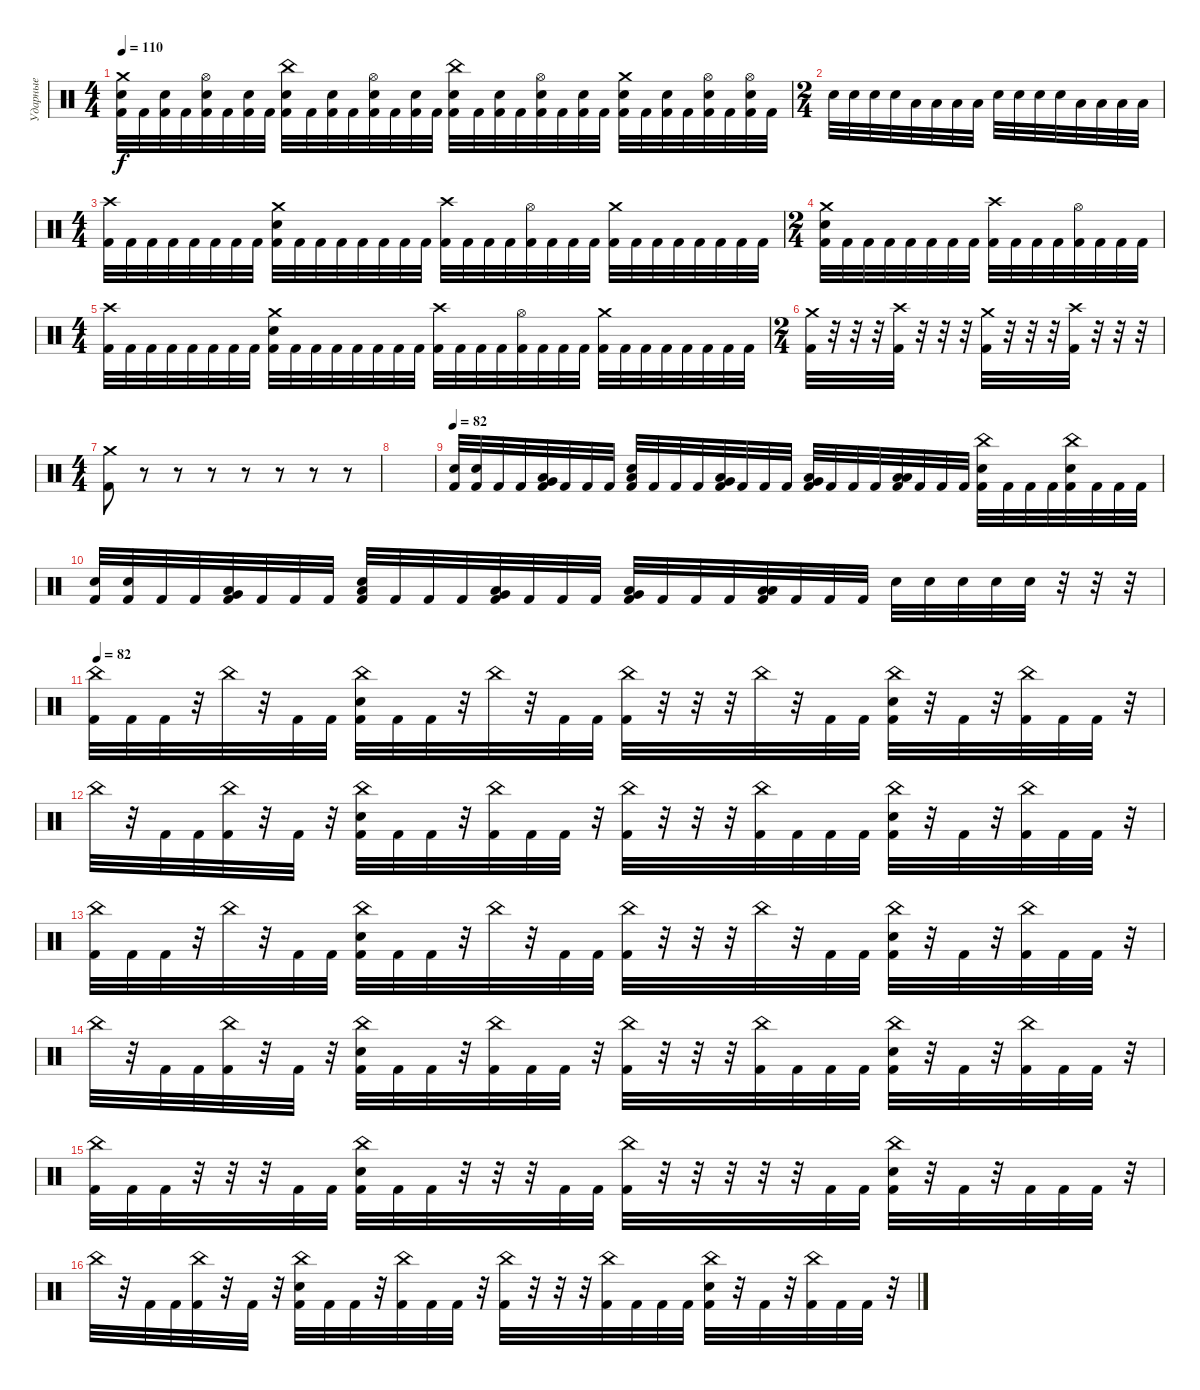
\track ("Ударные" "Ударные") {instrument percussion}
\staff {score}
\articulation defaults
\ts (4 4)
\tempo 110
\clef neutral
\ks c
("Crash medium (hit)" "Electric Snare (hit)" "Kick (hit) 2").32{dy f} "Kick (hit) 2".32 ("Electric Snare (hit)" "Kick (hit) 2").32 "Kick (hit) 2".32 ("Hi-Hat (open)" "Electric Snare (hit)" "Kick (hit) 2").32 "Kick (hit) 2".32 ("Electric Snare (hit)" "Kick (hit) 2").32 "Kick (hit) 2".32 ("China (hit)" "Electric Snare (hit)" "Kick (hit) 2").32 "Kick (hit) 2".32 ("Electric Snare (hit)" "Kick (hit) 2").32 "Kick (hit) 2".32 ("Hi-Hat (open)" "Electric Snare (hit)" "Kick (hit) 2").32 "Kick (hit) 2".32 ("Electric Snare (hit)" "Kick (hit) 2").32 "Kick (hit) 2".32 ("China (hit)" "Electric Snare (hit)" "Kick (hit) 2").32 "Kick (hit) 2".32 ("Electric Snare (hit)" "Kick (hit) 2").32 "Kick (hit) 2".32 ("Hi-Hat (open)" "Electric Snare (hit)" "Kick (hit) 2").32 "Kick (hit) 2".32 ("Electric Snare (hit)" "Kick (hit) 2").32 "Kick (hit) 2".32 ("Crash medium (hit)" "Electric Snare (hit)" "Kick (hit) 2").32 "Kick (hit) 2".32 ("Electric Snare (hit)" "Kick (hit) 2").32 "Kick (hit) 2".32 ("Hi-Hat (open)" "Electric Snare (hit)" "Kick (hit) 2").32 "Kick (hit) 2".32 ("Hi-Hat (open)" "Electric Snare (hit)" "Kick (hit) 2").32 "Kick (hit) 2".32 |
\ts (2 4)
"Electric Snare (hit)".32 "Electric Snare (hit)".32 "Electric Snare (hit)".32 "Electric Snare (hit)".32 "Low Tom (hit)".32 "Low Tom (hit)".32 "Low Tom (hit)".32 "Low Tom (hit)".32 "Electric Snare (hit)".32 "Electric Snare (hit)".32 "Electric Snare (hit)".32 "Electric Snare (hit)".32 "Low Tom (hit)".32 "Low Tom (hit)".32 "Low Tom (hit)".32 "Low Tom (hit)".32 |
\ts (4 4)
("Crash high (hit)" "Kick (hit) 2").32 "Kick (hit) 2".32 "Kick (hit) 2".32 "Kick (hit) 2".32 "Kick (hit) 2".32 "Kick (hit) 2".32 "Kick (hit) 2".32 "Kick (hit) 2".32 ("Crash medium (hit)" "Electric Snare (hit)" "Kick (hit) 2").32 "Kick (hit) 2".32 "Kick (hit) 2".32 "Kick (hit) 2".32 "Kick (hit) 2".32 "Kick (hit) 2".32 "Kick (hit) 2".32 "Kick (hit) 2".32 ("Crash high (hit)" "Kick (hit) 2").32 "Kick (hit) 2".32 "Kick (hit) 2".32 "Kick (hit) 2".32 ("Hi-Hat (open)" "Kick (hit) 2").32 "Kick (hit) 2".32 "Kick (hit) 2".32 "Kick (hit) 2".32 ("Crash medium (hit)" "Kick (hit) 2").32 "Kick (hit) 2".32 "Kick (hit) 2".32 "Kick (hit) 2".32 "Kick (hit) 2".32 "Kick (hit) 2".32 "Kick (hit) 2".32 "Kick (hit) 2".32 |
\ts (2 4)
("Crash medium (hit)" "Electric Snare (hit)" "Kick (hit) 2").32 "Kick (hit) 2".32 "Kick (hit) 2".32 "Kick (hit) 2".32 "Kick (hit) 2".32 "Kick (hit) 2".32 "Kick (hit) 2".32 "Kick (hit) 2".32 ("Crash high (hit)" "Kick (hit) 2").32 "Kick (hit) 2".32 "Kick (hit) 2".32 "Kick (hit) 2".32 ("Hi-Hat (open)" "Kick (hit) 2").32 "Kick (hit) 2".32 "Kick (hit) 2".32 "Kick (hit) 2".32 |
\ts (4 4)
("Crash high (hit)" "Kick (hit) 2").32 "Kick (hit) 2".32 "Kick (hit) 2".32 "Kick (hit) 2".32 "Kick (hit) 2".32 "Kick (hit) 2".32 "Kick (hit) 2".32 "Kick (hit) 2".32 ("Crash medium (hit)" "Electric Snare (hit)" "Kick (hit) 2").32 "Kick (hit) 2".32 "Kick (hit) 2".32 "Kick (hit) 2".32 "Kick (hit) 2".32 "Kick (hit) 2".32 "Kick (hit) 2".32 "Kick (hit) 2".32 ("Crash high (hit)" "Kick (hit) 2").32 "Kick (hit) 2".32 "Kick (hit) 2".32 "Kick (hit) 2".32 ("Hi-Hat (open)" "Kick (hit) 2").32 "Kick (hit) 2".32 "Kick (hit) 2".32 "Kick (hit) 2".32 ("Crash medium (hit)" "Kick (hit) 2").32 "Kick (hit) 2".32 "Kick (hit) 2".32 "Kick (hit) 2".32 "Kick (hit) 2".32 "Kick (hit) 2".32 "Kick (hit) 2".32 "Kick (hit) 2".32 |
\ts (2 4)
("Crash medium (hit)" "Kick (hit) 2").32 r.32 r.32 r.32 ("Crash high (hit)" "Kick (hit) 2").32 r.32 r.32 r.32 ("Crash medium (hit)" "Kick (hit) 2").32 r.32 r.32 r.32 ("Crash high (hit)" "Kick (hit) 2").32 r.32 r.32 r.32 |
\ts (4 4)
("Crash medium (hit)" "Kick (hit) 2").8 r.8 r.8 r.8 r.8 r.8 r.8 r.8 |
|
\tempo 82
("Electric Snare (hit)" "Kick (hit) 2").32 ("Electric Snare (hit)" "Kick (hit) 2").32 "Kick (hit) 2".32 "Kick (hit) 2".32 ("Low Tom (hit)" "Very Low Tom (hit)" "Kick (hit) 2").32 "Kick (hit) 2".32 "Kick (hit) 2".32 "Kick (hit) 2".32 ("Low Floor Tom (hit)" "Electric Snare (hit)" "Kick (hit) 2").32 "Kick (hit) 2".32 "Kick (hit) 2".32 "Kick (hit) 2".32 ("Very Low Tom (hit)" "Low Tom (hit)" "Kick (hit) 2").32 "Kick (hit) 2".32 "Kick (hit) 2".32 "Kick (hit) 2".32 ("Very Low Tom (hit)" "Low Floor Tom (hit)" "Kick (hit) 2").32 "Kick (hit) 2".32 "Kick (hit) 2".32 "Kick (hit) 2".32 ("Low Floor Tom (hit)" "Low Floor Tom (hit)" "Kick (hit) 2").32 "Kick (hit) 2".32 "Kick (hit) 2".32 "Kick (hit) 2".32 ("China (hit)" "Electric Snare (hit)" "Kick (hit) 2").32 "Kick (hit) 2".32 "Kick (hit) 2".32 "Kick (hit) 2".32 ("China (hit)" "Electric Snare (hit)" "Kick (hit) 2").32 "Kick (hit) 2".32 "Kick (hit) 2".32 "Kick (hit) 2".32 |
("Electric Snare (hit)" "Kick (hit) 2").32 ("Electric Snare (hit)" "Kick (hit) 2").32 "Kick (hit) 2".32 "Kick (hit) 2".32 ("Low Tom (hit)" "Very Low Tom (hit)" "Kick (hit) 2").32 "Kick (hit) 2".32 "Kick (hit) 2".32 "Kick (hit) 2".32 ("Low Floor Tom (hit)" "Electric Snare (hit)" "Kick (hit) 2").32 "Kick (hit) 2".32 "Kick (hit) 2".32 "Kick (hit) 2".32 ("Very Low Tom (hit)" "Low Tom (hit)" "Kick (hit) 2").32 "Kick (hit) 2".32 "Kick (hit) 2".32 "Kick (hit) 2".32 ("Very Low Tom (hit)" "Low Floor Tom (hit)" "Kick (hit) 2").32 "Kick (hit) 2".32 "Kick (hit) 2".32 "Kick (hit) 2".32 ("Low Floor Tom (hit)" "Low Floor Tom (hit)" "Kick (hit) 2").32 "Kick (hit) 2".32 "Kick (hit) 2".32 "Kick (hit) 2".32 "Electric Snare (hit)".32 "Electric Snare (hit)".32 "Electric Snare (hit)".32 "Electric Snare (hit)".32 "Electric Snare (hit)".32 r.32 r.32 r.32 |
\tempo 82
("China (hit)" "Kick (hit) 2").32 "Kick (hit) 2".32 "Kick (hit) 2".32 r.32 "China (hit)".32 r.32 "Kick (hit) 2".32 "Kick (hit) 2".32 ("China (hit)" "Electric Snare (hit)" "Kick (hit) 2").32 "Kick (hit) 2".32 "Kick (hit) 2".32 r.32 "China (hit)".32 r.32 "Kick (hit) 2".32 "Kick (hit) 2".32 ("China (hit)" "Kick (hit) 2").32 r.32 r.32 r.32 "China (hit)".32 r.32 "Kick (hit) 2".32 "Kick (hit) 2".32 ("China (hit)" "Electric Snare (hit)" "Kick (hit) 2").32 r.32 "Kick (hit) 2".32 r.32 ("China (hit)" "Kick (hit) 2").32 "Kick (hit) 2".32 "Kick (hit) 2".32 r.32 |
"China (hit)".32 r.32 "Kick (hit) 2".32 "Kick (hit) 2".32 ("China (hit)" "Kick (hit) 2").32 r.32 "Kick (hit) 2".32 r.32 ("China (hit)" "Electric Snare (hit)" "Kick (hit) 2").32 "Kick (hit) 2".32 "Kick (hit) 2".32 r.32 ("China (hit)" "Kick (hit) 2").32 "Kick (hit) 2".32 "Kick (hit) 2".32 r.32 ("China (hit)" "Kick (hit) 2").32 r.32 r.32 r.32 ("China (hit)" "Kick (hit) 2").32 "Kick (hit) 2".32 "Kick (hit) 2".32 "Kick (hit) 2".32 ("China (hit)" "Electric Snare (hit)" "Kick (hit) 2").32 r.32 "Kick (hit) 2".32 r.32 ("China (hit)" "Kick (hit) 2").32 "Kick (hit) 2".32 "Kick (hit) 2".32 r.32 |
("China (hit)" "Kick (hit) 2").32 "Kick (hit) 2".32 "Kick (hit) 2".32 r.32 "China (hit)".32 r.32 "Kick (hit) 2".32 "Kick (hit) 2".32 ("China (hit)" "Electric Snare (hit)" "Kick (hit) 2").32 "Kick (hit) 2".32 "Kick (hit) 2".32 r.32 "China (hit)".32 r.32 "Kick (hit) 2".32 "Kick (hit) 2".32 ("China (hit)" "Kick (hit) 2").32 r.32 r.32 r.32 "China (hit)".32 r.32 "Kick (hit) 2".32 "Kick (hit) 2".32 ("China (hit)" "Electric Snare (hit)" "Kick (hit) 2").32 r.32 "Kick (hit) 2".32 r.32 ("China (hit)" "Kick (hit) 2").32 "Kick (hit) 2".32 "Kick (hit) 2".32 r.32 |
"China (hit)".32 r.32 "Kick (hit) 2".32 "Kick (hit) 2".32 ("China (hit)" "Kick (hit) 2").32 r.32 "Kick (hit) 2".32 r.32 ("China (hit)" "Electric Snare (hit)" "Kick (hit) 2").32 "Kick (hit) 2".32 "Kick (hit) 2".32 r.32 ("China (hit)" "Kick (hit) 2").32 "Kick (hit) 2".32 "Kick (hit) 2".32 r.32 ("China (hit)" "Kick (hit) 2").32 r.32 r.32 r.32 ("China (hit)" "Kick (hit) 2").32 "Kick (hit) 2".32 "Kick (hit) 2".32 "Kick (hit) 2".32 ("China (hit)" "Electric Snare (hit)" "Kick (hit) 2").32 r.32 "Kick (hit) 2".32 r.32 ("China (hit)" "Kick (hit) 2").32 "Kick (hit) 2".32 "Kick (hit) 2".32 r.32 |
("China (hit)" "Kick (hit) 2").32 "Kick (hit) 2".32 "Kick (hit) 2".32 r.32 r.32 r.32 "Kick (hit) 2".32 "Kick (hit) 2".32 ("China (hit)" "Electric Snare (hit)" "Kick (hit) 2").32 "Kick (hit) 2".32 "Kick (hit) 2".32 r.32 r.32 r.32 "Kick (hit) 2".32 "Kick (hit) 2".32 ("China (hit)" "Kick (hit) 2").32 r.32 r.32 r.32 r.32 r.32 "Kick (hit) 2".32 "Kick (hit) 2".32 ("China (hit)" "Electric Snare (hit)" "Kick (hit) 2").32 r.32 "Kick (hit) 2".32 r.32 "Kick (hit) 2".32 "Kick (hit) 2".32 "Kick (hit) 2".32 r.32 |
"China (hit)".32 r.32 "Kick (hit) 2".32 "Kick (hit) 2".32 ("China (hit)" "Kick (hit) 2").32 r.32 "Kick (hit) 2".32 r.32 ("China (hit)" "Electric Snare (hit)" "Kick (hit) 2").32 "Kick (hit) 2".32 "Kick (hit) 2".32 r.32 ("China (hit)" "Kick (hit) 2").32 "Kick (hit) 2".32 "Kick (hit) 2".32 r.32 ("China (hit)" "Kick (hit) 2").32 r.32 r.32 r.32 ("China (hit)" "Kick (hit) 2").32 "Kick (hit) 2".32 "Kick (hit) 2".32 "Kick (hit) 2".32 ("China (hit)" "Electric Snare (hit)" "Kick (hit) 2").32 r.32 "Kick (hit) 2".32 r.32 ("China (hit)" "Kick (hit) 2").32 "Kick (hit) 2".32 "Kick (hit) 2".32 r.32
